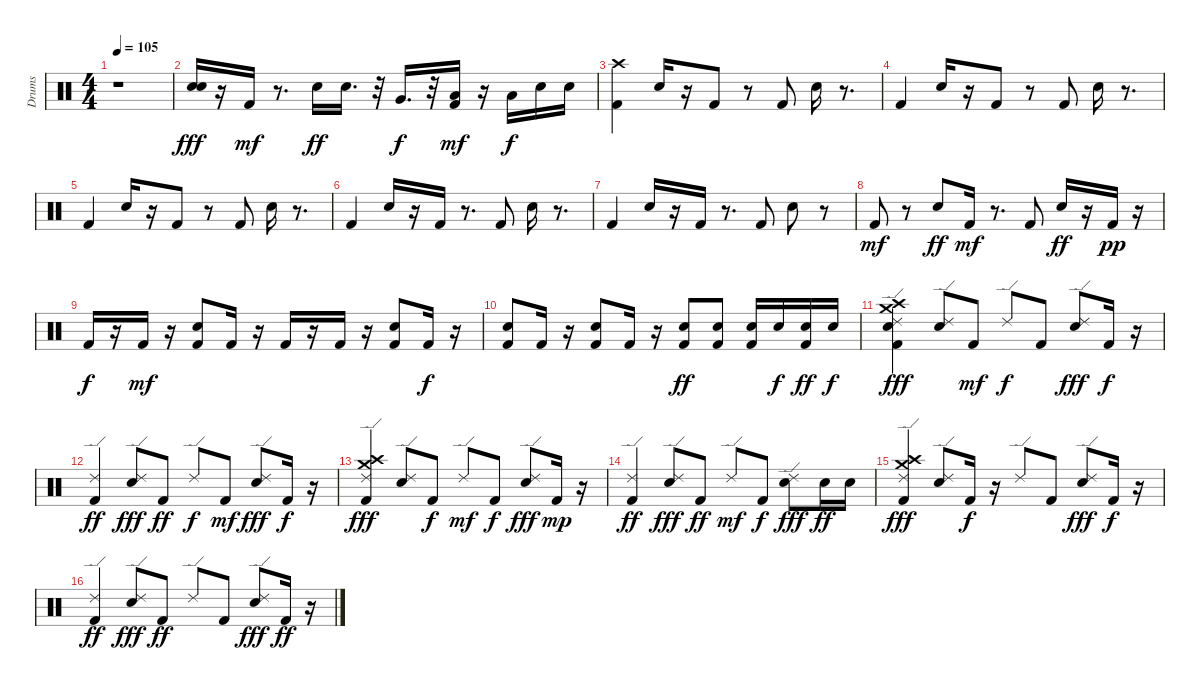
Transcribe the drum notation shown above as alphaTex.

\track ("Drums" "Drums") {instrument percussion}
\staff {score}
\articulation defaults
\ts (4 4)
\tempo 105
\clef neutral
\ks c
r.1{dy fff} |
("Snare (hit) 2" "Electric Snare (hit)").16{volume 16 balance 11} r.16 "Kick (hit) 2".16{dy mf} r.8{d} "Snare (hit) 2".16{dy ff} "Snare (hit) 2".16{d} r.32 "Very Low Tom (hit)".16{d dy f} r.32 ("Low Floor Tom (hit)" "Kick (hit) 2").16{dy mf} r.16 "Low Tom (hit)".16{dy f} "Snare (hit) 2".16 "Snare (hit) 2".16 |
("Crash high (hit)" "Kick (hit) 2").4 "Snare (hit) 2".16 r.16 "Kick (hit) 2".8 r.8 "Kick (hit) 2".8 "Snare (hit) 2".16 r.8{d} |
"Kick (hit) 2".4 "Snare (hit) 2".16 r.16 "Kick (hit) 2".8 r.8 "Kick (hit) 2".8 "Snare (hit) 2".16 r.8{d} |
"Kick (hit) 2".4 "Snare (hit) 2".16 r.16 "Kick (hit) 2".8 r.8 "Kick (hit) 2".8 "Snare (hit) 2".16 r.8{d} |
"Kick (hit) 2".4 "Snare (hit) 2".16 r.16 "Kick (hit) 2".16 r.8{d} "Kick (hit) 2".8 "Snare (hit) 2".16 r.8{d} |
"Kick (hit) 2".4 "Snare (hit) 2".16 r.16 "Kick (hit) 2".16 r.8{d} "Kick (hit) 2".8 "Snare (hit) 2".8 r.8 |
"Kick (hit) 2".8{dy mf} r.8 "Snare (hit) 2".8{dy ff} "Kick (hit) 2".16{dy mf} r.8{d} "Kick (hit) 2".8 "Snare (hit) 2".16{dy ff} r.16 "Kick (hit) 2".16{dy pp} r.16 |
"Kick (hit) 2".16{dy f} r.16 "Kick (hit) 2".16{dy mf} r.16 ("Snare (hit) 2" "Kick (hit) 2").8 "Kick (hit) 2".16 r.16 "Kick (hit) 2".16 r.16 "Kick (hit) 2".16 r.16 ("Kick (hit) 2" "Snare (hit) 2").8 "Kick (hit) 2".16{dy f} r.16 |
("Snare (hit) 2" "Kick (hit) 2").8 "Kick (hit) 2".16 r.16 ("Snare (hit) 2" "Kick (hit) 2").8 "Kick (hit) 2".16 r.16 ("Snare (hit) 2" "Kick (hit) 2").8{dy ff} ("Snare (hit) 2" "Kick (hit) 2").8 ("Snare (hit) 2" "Kick (hit) 2").16 "Snare (hit) 2".16{dy f} ("Snare (hit) 2" "Kick (hit) 2").16{dy ff} "Snare (hit) 2".16{dy f} |
("Crash medium (hit)" "Crash high (hit)" "Ride (edge) 2" "Kick (hit) 2" "Snare (hit) 2").4{dy fff} ("Ride (edge) 2" "Snare (hit) 2").8 "Kick (hit) 2".8{dy mf} "Ride (edge) 2".8{dy f} "Kick (hit) 2".8 ("Ride (edge) 2" "Snare (hit) 2").8{dy fff} "Kick (hit) 2".16{dy f} r.16 |
("Ride (edge) 2" "Kick (hit) 2").4{dy ff} ("Ride (edge) 2" "Snare (hit) 2").8{dy fff} "Kick (hit) 2".8{dy ff} "Ride (edge) 2".8{dy f} "Kick (hit) 2".8{dy mf} ("Ride (edge) 2" "Snare (hit) 2").8{dy fff} "Kick (hit) 2".16{dy f} r.16 |
("Crash medium (hit)" "Crash high (hit)" "Ride (edge) 2" "Kick (hit) 2").4{dy fff} ("Ride (edge) 2" "Snare (hit) 2").8 "Kick (hit) 2".8{dy f} "Ride (edge) 2".8{dy mf} "Kick (hit) 2".8{dy f} ("Ride (edge) 2" "Snare (hit) 2").8{dy fff} "Kick (hit) 2".16{dy mp} r.16 |
("Ride (edge) 2" "Kick (hit) 2").4{dy ff} ("Ride (edge) 2" "Snare (hit) 2").8{dy fff} "Kick (hit) 2".8{dy ff} "Ride (edge) 2".8{dy mf} "Kick (hit) 2".8{dy f} ("Ride (edge) 2" "Snare (hit) 2").8{dy fff} "Snare (hit) 2".16{dy ff} "Snare (hit) 2".16 |
("Crash medium (hit)" "Crash high (hit)" "Ride (edge) 2" "Kick (hit) 2").4{dy fff} ("Ride (edge) 2" "Snare (hit) 2").8 "Kick (hit) 2".16{dy f} r.16 "Ride (edge) 2".8 "Kick (hit) 2".8 ("Ride (edge) 2" "Snare (hit) 2").8{dy fff} "Kick (hit) 2".16{dy f} r.16 |
("Ride (edge) 2" "Kick (hit) 2").4{dy ff} ("Ride (edge) 2" "Snare (hit) 2").8{dy fff} "Kick (hit) 2".8{dy ff} "Ride (edge) 2".8 "Kick (hit) 2".8 ("Ride (edge) 2" "Snare (hit) 2").8{dy fff} "Kick (hit) 2".16{dy ff} r.16
